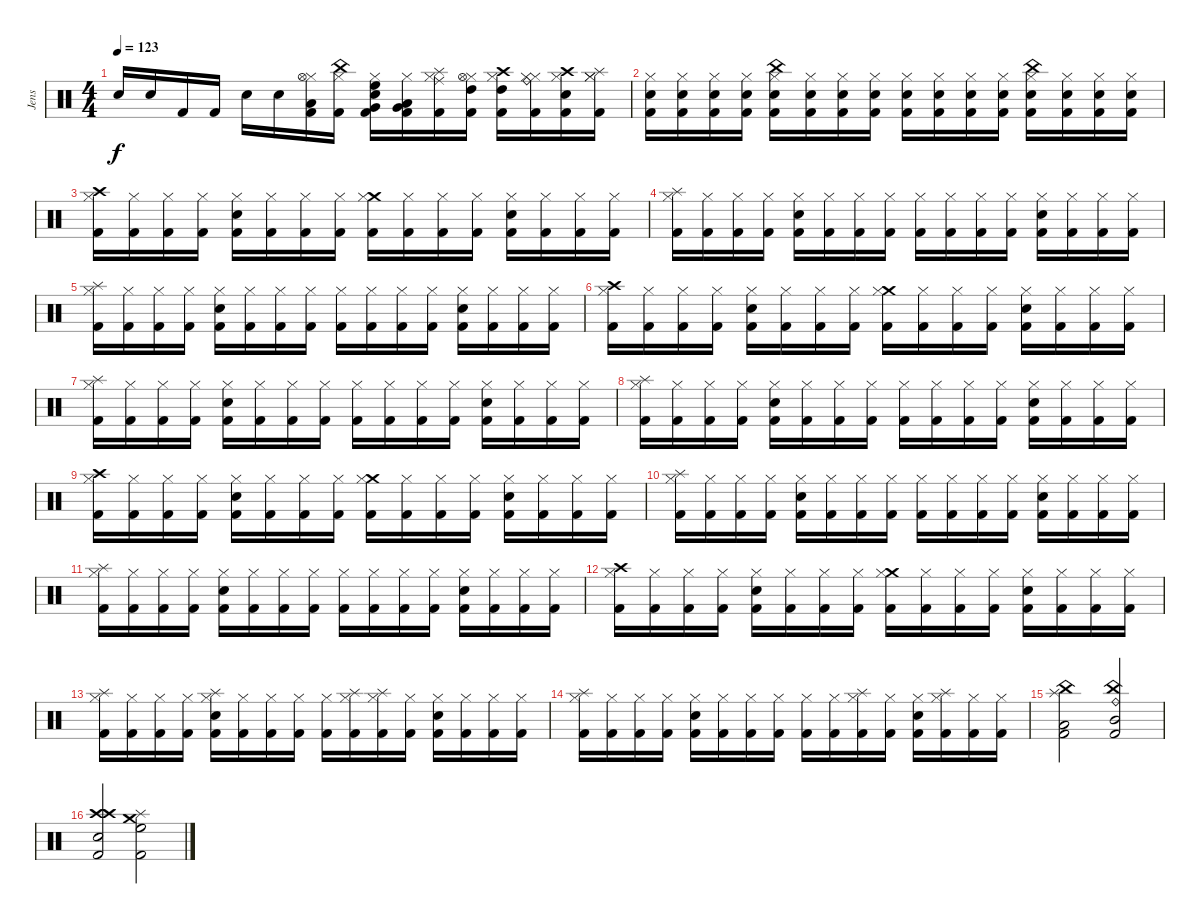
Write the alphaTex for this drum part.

\track ("Jens" "Jens") {instrument percussion}
\staff {score}
\articulation defaults
\ts (4 4)
\tempo 123
\clef neutral
\ks c "Snare (hit) 2".16{dy f} "Snare (hit) 2".16 "Kick (hit) 2".16 "Kick (hit) 2".16 "Snare (hit) 2".16 "Snare (hit) 2".16
("Hi-Hat (closed)" "Low Tom (hit)" "Hi-Hat (open)" "Kick (hit) 2").16 ("Hi-Hat (closed)" "China (hit)" "Kick (hit) 2").16 ("Hi-Hat (closed)" "High Floor Tom (hit)" "Very Low Tom (hit)" "Snare (hit) 2" "Kick (hit) 2").16 ("Hi-Hat (closed)" "Low Floor Tom (hit)" "Very Low Tom (hit)" "Kick (hit) 2").16 ("Hi-Hat (closed)" "Splash (hit)" "Ride (middle)" "Kick (hit) 2").16 ("Hi-Hat (closed)" "Hi-Hat (open)" "High Tom (hit)" "Kick (hit) 2").16 ("Hi-Hat (closed)" "High Tom (hit)" "Crash high (hit)" "Kick (hit) 2").16 ("Hi-Hat (closed)" "Hi-Hat (closed)" "Ride (bell)" "Kick (hit) 2").16 ("Hi-Hat (closed)" "Snare (hit) 2" "Crash high (hit)" "Kick (hit) 2").16 ("Hi-Hat (closed)" "Splash (hit)" "Hi-Hat (closed)" "Kick (hit) 2").16 |
("Hi-Hat (closed)" "Snare (hit) 2" "Kick (hit) 2").16 ("Hi-Hat (closed)" "Snare (hit) 2" "Kick (hit) 2").16 ("Hi-Hat (closed)" "Snare (hit) 2" "Kick (hit) 2").16 ("Hi-Hat (closed)" "Snare (hit) 2" "Kick (hit) 2").16 ("Hi-Hat (closed)" "China (hit)" "Snare (hit) 2" "Kick (hit) 2").16 ("Hi-Hat (closed)" "Snare (hit) 2" "Kick (hit) 2").16 ("Hi-Hat (closed)" "Snare (hit) 2" "Kick (hit) 2").16 ("Hi-Hat (closed)" "Snare (hit) 2" "Kick (hit) 2").16 ("Hi-Hat (closed)" "Snare (hit) 2" "Kick (hit) 2").16 ("Hi-Hat (closed)" "Snare (hit) 2" "Kick (hit) 2").16 ("Hi-Hat (closed)" "Snare (hit) 2" "Kick (hit) 2").16 ("Hi-Hat (closed)" "Snare (hit) 2" "Kick (hit) 2").16 ("Hi-Hat (closed)" "China (hit)" "Snare (hit) 2" "Kick (hit) 2").16 ("Hi-Hat (closed)" "Snare (hit) 2" "Kick (hit) 2").16 ("Hi-Hat (closed)" "Snare (hit) 2" "Kick (hit) 2").16 ("Hi-Hat (closed)" "Snare (hit) 2" "Kick (hit) 2").16 |
("Crash high (hit)" "Hi-Hat (closed)" "Kick (hit) 2").16 ("Hi-Hat (closed)" "Kick (hit) 2").16 ("Hi-Hat (closed)" "Kick (hit) 2").16 ("Hi-Hat (closed)" "Kick (hit) 2").16 ("Hi-Hat (closed)" "Snare (hit) 2" "Kick (hit) 2").16 ("Hi-Hat (closed)" "Kick (hit) 2").16 ("Hi-Hat (closed)" "Kick (hit) 2").16 ("Hi-Hat (closed)" "Kick (hit) 2").16 ("Crash medium (hit)" "Hi-Hat (closed)" "Kick (hit) 2").16 ("Hi-Hat (closed)" "Kick (hit) 2").16 ("Hi-Hat (closed)" "Kick (hit) 2").16 ("Hi-Hat (closed)" "Kick (hit) 2").16 ("Hi-Hat (closed)" "Snare (hit) 2" "Kick (hit) 2").16 ("Hi-Hat (closed)" "Kick (hit) 2").16 ("Hi-Hat (closed)" "Kick (hit) 2").16 ("Hi-Hat (closed)" "Kick (hit) 2").16 |
("Splash (hit)" "Hi-Hat (closed)" "Kick (hit) 2").16 ("Hi-Hat (closed)" "Kick (hit) 2").16 ("Hi-Hat (closed)" "Kick (hit) 2").16 ("Hi-Hat (closed)" "Kick (hit) 2").16 ("Hi-Hat (closed)" "Snare (hit) 2" "Kick (hit) 2").16 ("Hi-Hat (closed)" "Kick (hit) 2").16 ("Hi-Hat (closed)" "Kick (hit) 2").16 ("Hi-Hat (closed)" "Kick (hit) 2").16 ("Hi-Hat (closed)" "Kick (hit) 2").16 ("Hi-Hat (closed)" "Kick (hit) 2").16 ("Hi-Hat (closed)" "Kick (hit) 2").16 ("Hi-Hat (closed)" "Kick (hit) 2").16 ("Hi-Hat (closed)" "Snare (hit) 2" "Kick (hit) 2").16 ("Hi-Hat (closed)" "Kick (hit) 2").16 ("Hi-Hat (closed)" "Kick (hit) 2").16 ("Hi-Hat (closed)" "Kick (hit) 2").16 |
("Splash (hit)" "Hi-Hat (closed)" "Kick (hit) 2").16 ("Hi-Hat (closed)" "Kick (hit) 2").16 ("Hi-Hat (closed)" "Kick (hit) 2").16 ("Hi-Hat (closed)" "Kick (hit) 2").16 ("Hi-Hat (closed)" "Snare (hit) 2" "Kick (hit) 2").16 ("Hi-Hat (closed)" "Kick (hit) 2").16 ("Hi-Hat (closed)" "Kick (hit) 2").16 ("Hi-Hat (closed)" "Kick (hit) 2").16 ("Hi-Hat (closed)" "Kick (hit) 2").16 ("Hi-Hat (closed)" "Kick (hit) 2").16 ("Hi-Hat (closed)" "Kick (hit) 2").16 ("Hi-Hat (closed)" "Kick (hit) 2").16 ("Hi-Hat (closed)" "Snare (hit) 2" "Kick (hit) 2").16 ("Hi-Hat (closed)" "Kick (hit) 2").16 ("Hi-Hat (closed)" "Kick (hit) 2").16 ("Hi-Hat (closed)" "Kick (hit) 2").16 |
("Crash high (hit)" "Hi-Hat (closed)" "Kick (hit) 2").16 ("Hi-Hat (closed)" "Kick (hit) 2").16 ("Hi-Hat (closed)" "Kick (hit) 2").16 ("Hi-Hat (closed)" "Kick (hit) 2").16 ("Hi-Hat (closed)" "Snare (hit) 2" "Kick (hit) 2").16 ("Hi-Hat (closed)" "Kick (hit) 2").16 ("Hi-Hat (closed)" "Kick (hit) 2").16 ("Hi-Hat (closed)" "Kick (hit) 2").16 ("Crash medium (hit)" "Hi-Hat (closed)" "Kick (hit) 2").16 ("Hi-Hat (closed)" "Kick (hit) 2").16 ("Hi-Hat (closed)" "Kick (hit) 2").16 ("Hi-Hat (closed)" "Kick (hit) 2").16 ("Hi-Hat (closed)" "Snare (hit) 2" "Kick (hit) 2").16 ("Hi-Hat (closed)" "Kick (hit) 2").16 ("Hi-Hat (closed)" "Kick (hit) 2").16 ("Hi-Hat (closed)" "Kick (hit) 2").16 |
("Splash (hit)" "Hi-Hat (closed)" "Kick (hit) 2").16 ("Hi-Hat (closed)" "Kick (hit) 2").16 ("Hi-Hat (closed)" "Kick (hit) 2").16 ("Hi-Hat (closed)" "Kick (hit) 2").16 ("Hi-Hat (closed)" "Snare (hit) 2" "Kick (hit) 2").16 ("Hi-Hat (closed)" "Kick (hit) 2").16 ("Hi-Hat (closed)" "Kick (hit) 2").16 ("Hi-Hat (closed)" "Kick (hit) 2").16 ("Hi-Hat (closed)" "Kick (hit) 2").16 ("Hi-Hat (closed)" "Kick (hit) 2").16 ("Hi-Hat (closed)" "Kick (hit) 2").16 ("Hi-Hat (closed)" "Kick (hit) 2").16 ("Hi-Hat (closed)" "Snare (hit) 2" "Kick (hit) 2").16 ("Hi-Hat (closed)" "Kick (hit) 2").16 ("Hi-Hat (closed)" "Kick (hit) 2").16 ("Hi-Hat (closed)" "Kick (hit) 2").16 |
("Splash (hit)" "Hi-Hat (closed)" "Kick (hit) 2").16 ("Hi-Hat (closed)" "Kick (hit) 2").16 ("Hi-Hat (closed)" "Kick (hit) 2").16 ("Hi-Hat (closed)" "Kick (hit) 2").16 ("Hi-Hat (closed)" "Snare (hit) 2" "Kick (hit) 2").16 ("Hi-Hat (closed)" "Kick (hit) 2").16 ("Hi-Hat (closed)" "Kick (hit) 2").16 ("Hi-Hat (closed)" "Kick (hit) 2").16 ("Hi-Hat (closed)" "Kick (hit) 2").16 ("Hi-Hat (closed)" "Kick (hit) 2").16 ("Hi-Hat (closed)" "Kick (hit) 2").16 ("Hi-Hat (closed)" "Kick (hit) 2").16 ("Hi-Hat (closed)" "Snare (hit) 2" "Kick (hit) 2").16 ("Hi-Hat (closed)" "Kick (hit) 2").16 ("Hi-Hat (closed)" "Kick (hit) 2").16 ("Hi-Hat (closed)" "Kick (hit) 2").16 |
("Crash high (hit)" "Hi-Hat (closed)" "Kick (hit) 2").16 ("Hi-Hat (closed)" "Kick (hit) 2").16 ("Hi-Hat (closed)" "Kick (hit) 2").16 ("Hi-Hat (closed)" "Kick (hit) 2").16 ("Hi-Hat (closed)" "Snare (hit) 2" "Kick (hit) 2").16 ("Hi-Hat (closed)" "Kick (hit) 2").16 ("Hi-Hat (closed)" "Kick (hit) 2").16 ("Hi-Hat (closed)" "Kick (hit) 2").16 ("Crash medium (hit)" "Hi-Hat (closed)" "Kick (hit) 2").16 ("Hi-Hat (closed)" "Kick (hit) 2").16 ("Hi-Hat (closed)" "Kick (hit) 2").16 ("Hi-Hat (closed)" "Kick (hit) 2").16 ("Hi-Hat (closed)" "Snare (hit) 2" "Kick (hit) 2").16 ("Hi-Hat (closed)" "Kick (hit) 2").16 ("Hi-Hat (closed)" "Kick (hit) 2").16 ("Hi-Hat (closed)" "Kick (hit) 2").16 |
("Splash (hit)" "Hi-Hat (closed)" "Kick (hit) 2").16 ("Hi-Hat (closed)" "Kick (hit) 2").16 ("Hi-Hat (closed)" "Kick (hit) 2").16 ("Hi-Hat (closed)" "Kick (hit) 2").16 ("Hi-Hat (closed)" "Snare (hit) 2" "Kick (hit) 2").16 ("Hi-Hat (closed)" "Kick (hit) 2").16 ("Hi-Hat (closed)" "Kick (hit) 2").16 ("Hi-Hat (closed)" "Kick (hit) 2").16 ("Hi-Hat (closed)" "Kick (hit) 2").16 ("Hi-Hat (closed)" "Kick (hit) 2").16 ("Hi-Hat (closed)" "Kick (hit) 2").16 ("Hi-Hat (closed)" "Kick (hit) 2").16 ("Hi-Hat (closed)" "Snare (hit) 2" "Kick (hit) 2").16 ("Hi-Hat (closed)" "Kick (hit) 2").16 ("Hi-Hat (closed)" "Kick (hit) 2").16 ("Hi-Hat (closed)" "Kick (hit) 2").16 |
("Splash (hit)" "Hi-Hat (closed)" "Kick (hit) 2").16 ("Hi-Hat (closed)" "Kick (hit) 2").16 ("Hi-Hat (closed)" "Kick (hit) 2").16 ("Hi-Hat (closed)" "Kick (hit) 2").16 ("Hi-Hat (closed)" "Snare (hit) 2" "Kick (hit) 2").16 ("Hi-Hat (closed)" "Kick (hit) 2").16 ("Hi-Hat (closed)" "Kick (hit) 2").16 ("Hi-Hat (closed)" "Kick (hit) 2").16 ("Hi-Hat (closed)" "Kick (hit) 2").16 ("Hi-Hat (closed)" "Kick (hit) 2").16 ("Hi-Hat (closed)" "Kick (hit) 2").16 ("Hi-Hat (closed)" "Kick (hit) 2").16 ("Hi-Hat (closed)" "Snare (hit) 2" "Kick (hit) 2").16 ("Hi-Hat (closed)" "Kick (hit) 2").16 ("Hi-Hat (closed)" "Kick (hit) 2").16 ("Hi-Hat (closed)" "Kick (hit) 2").16 |
("Crash high (hit)" "Hi-Hat (closed)" "Kick (hit) 2").16 ("Hi-Hat (closed)" "Kick (hit) 2").16 ("Hi-Hat (closed)" "Kick (hit) 2").16 ("Hi-Hat (closed)" "Kick (hit) 2").16 ("Hi-Hat (closed)" "Snare (hit) 2" "Kick (hit) 2").16 ("Hi-Hat (closed)" "Kick (hit) 2").16 ("Hi-Hat (closed)" "Kick (hit) 2").16 ("Hi-Hat (closed)" "Kick (hit) 2").16 ("Crash medium (hit)" "Hi-Hat (closed)" "Kick (hit) 2").16 ("Hi-Hat (closed)" "Kick (hit) 2").16 ("Hi-Hat (closed)" "Kick (hit) 2").16 ("Hi-Hat (closed)" "Kick (hit) 2").16 ("Hi-Hat (closed)" "Snare (hit) 2" "Kick (hit) 2").16 ("Hi-Hat (closed)" "Kick (hit) 2").16 ("Hi-Hat (closed)" "Kick (hit) 2").16 ("Hi-Hat (closed)" "Kick (hit) 2").16 |
("Splash (hit)" "Hi-Hat (closed)" "Kick (hit) 2").16 ("Hi-Hat (closed)" "Kick (hit) 2").16 ("Hi-Hat (closed)" "Kick (hit) 2").16 ("Hi-Hat (closed)" "Kick (hit) 2").16 ("Splash (hit)" "Hi-Hat (closed)" "Snare (hit) 2" "Kick (hit) 2").16 ("Hi-Hat (closed)" "Kick (hit) 2").16 ("Hi-Hat (closed)" "Kick (hit) 2").16 ("Hi-Hat (closed)" "Kick (hit) 2").16 ("Hi-Hat (closed)" "Kick (hit) 2").16 ("Splash (hit)" "Hi-Hat (closed)" "Kick (hit) 2").16 ("Splash (hit)" "Hi-Hat (closed)" "Kick (hit) 2").16 ("Hi-Hat (closed)" "Kick (hit) 2").16 ("Hi-Hat (closed)" "Snare (hit) 2" "Kick (hit) 2").16 ("Hi-Hat (closed)" "Kick (hit) 2").16 ("Hi-Hat (closed)" "Kick (hit) 2").16 ("Hi-Hat (closed)" "Kick (hit) 2").16 |
("Splash (hit)" "Hi-Hat (closed)" "Kick (hit) 2").16 ("Hi-Hat (closed)" "Kick (hit) 2").16 ("Hi-Hat (closed)" "Kick (hit) 2").16 ("Hi-Hat (closed)" "Kick (hit) 2").16 ("Hi-Hat (closed)" "Snare (hit) 2" "Kick (hit) 2").16 ("Hi-Hat (closed)" "Kick (hit) 2").16 ("Hi-Hat (closed)" "Kick (hit) 2").16 ("Hi-Hat (closed)" "Kick (hit) 2").16 ("Hi-Hat (closed)" "Kick (hit) 2").16 ("Hi-Hat (closed)" "Kick (hit) 2").16 ("Splash (hit)" "Hi-Hat (closed)" "Kick (hit) 2").16 ("Hi-Hat (closed)" "Kick (hit) 2").16 ("Hi-Hat (closed)" "Snare (hit) 2" "Kick (hit) 2").16 ("Splash (hit)" "Hi-Hat (closed)" "Kick (hit) 2").16 ("Hi-Hat (closed)" "Kick (hit) 2").16 ("Hi-Hat (closed)" "Kick (hit) 2").16 |
("Splash (hit)" "China (hit)" "Low Tom (hit)" "Kick (hit) 2").2 ("China (hit)" "Mid Tom (hit)" "Ride (bell)" "Kick (hit) 2").2 |
("Crash high (hit)" "Crash high (hit)" "Electric Snare (hit)" "Kick (hit) 2").2 ("Crash medium (hit)" "Splash (hit)" "High Floor Tom (hit)" "Kick (hit) 2").2
